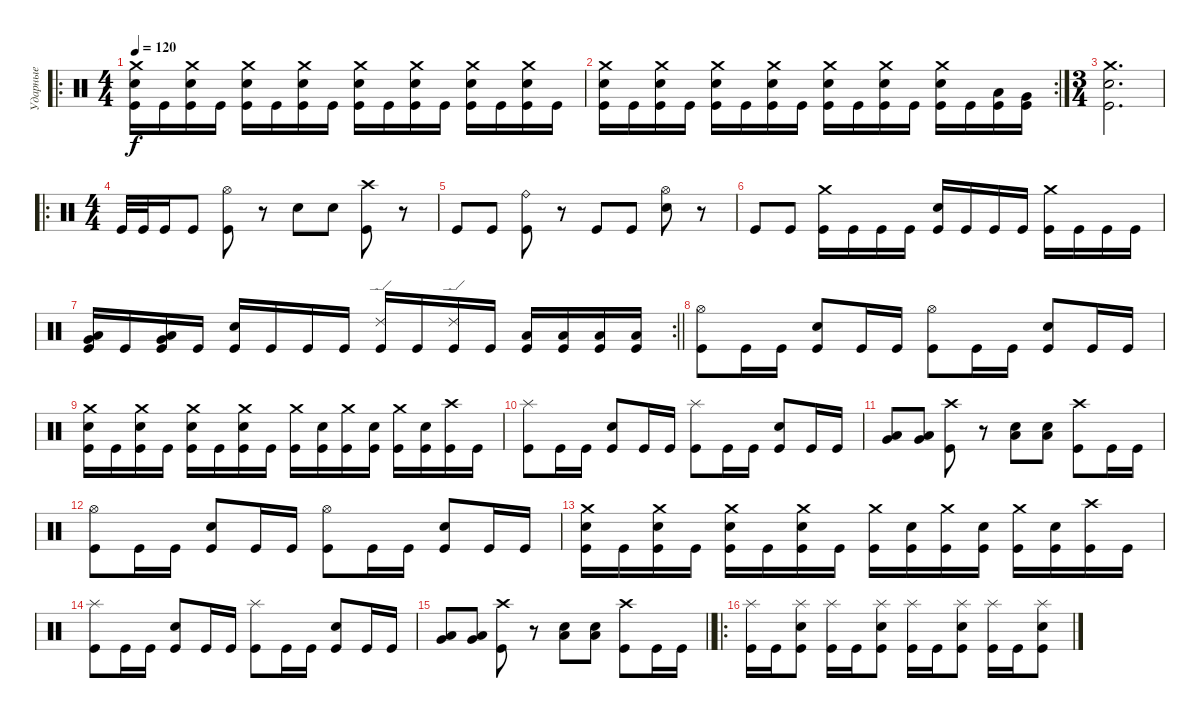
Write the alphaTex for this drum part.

\track ("Ударные" "Ударные") {instrument percussion}
\staff {score}
\articulation defaults
\ro
\ts (4 4)
\tempo 120
\clef neutral
\ks c
("Crash medium (hit)" "Kick (hit)" "Electric Snare (hit)").16{dy f} "Kick (hit)".16 ("Crash medium (hit)" "Kick (hit)" "Electric Snare (hit)").16 "Kick (hit)".16 ("Crash medium (hit)" "Kick (hit)" "Electric Snare (hit)").16 "Kick (hit)".16 ("Crash medium (hit)" "Kick (hit)" "Electric Snare (hit)").16 "Kick (hit)".16 ("Crash medium (hit)" "Kick (hit)" "Electric Snare (hit)").16 "Kick (hit)".16 ("Crash medium (hit)" "Kick (hit)" "Electric Snare (hit)").16 "Kick (hit)".16 ("Crash medium (hit)" "Kick (hit)" "Electric Snare (hit)").16 "Kick (hit)".16 ("Crash medium (hit)" "Kick (hit)" "Electric Snare (hit)").16 "Kick (hit)".16 |
\rc 2
("Crash medium (hit)" "Kick (hit)" "Electric Snare (hit)").16 "Kick (hit)".16 ("Crash medium (hit)" "Kick (hit)" "Electric Snare (hit)").16 "Kick (hit)".16 ("Crash medium (hit)" "Kick (hit)" "Electric Snare (hit)").16 "Kick (hit)".16 ("Crash medium (hit)" "Kick (hit)" "Electric Snare (hit)").16 "Kick (hit)".16 ("Crash medium (hit)" "Kick (hit)" "Electric Snare (hit)").16 "Kick (hit)".16 ("Crash medium (hit)" "Kick (hit)" "Electric Snare (hit)").16 "Kick (hit)".16 ("Crash medium (hit)" "Kick (hit)" "Electric Snare (hit)").16 "Kick (hit)".16 ("Low Tom (hit)" "Kick (hit)").16 ("Very Low Tom (hit)" "Kick (hit)").16 |
\ts (3 4)
("Crash medium (hit)" "Kick (hit)" "Electric Snare (hit)").2{d} |
\ro
\ts (4 4)
"Kick (hit)".32 "Kick (hit)".32 "Kick (hit)".16 "Kick (hit)".8 ("Hi-Hat (open)" "Kick (hit)").8 r.8 "Electric Snare (hit)".8 "Electric Snare (hit)".8 ("Crash high (hit)" "Kick (hit)").8 r.8 |
"Kick (hit)".8 "Kick (hit)".8 ("Ride (bell)" "Kick (hit)").8 r.8 "Kick (hit)".8 "Kick (hit)".8 ("Electric Snare (hit)" "Hi-Hat (open)").8 r.8 |
"Kick (hit)".8 "Kick (hit)".8 ("Crash medium (hit)" "Kick (hit)").16 "Kick (hit)".16 "Kick (hit)".16 "Kick (hit)".16 ("Electric Snare (hit)" "Kick (hit)").16 "Kick (hit)".16 "Kick (hit)".16 "Kick (hit)".16 ("Crash medium (hit)" "Kick (hit)").16 "Kick (hit)".16 "Kick (hit)".16 "Kick (hit)".16 |
\rc 2
\barLineRight lightlight
("Low Floor Tom (hit)" "Very Low Tom (hit)" "Kick (hit)").16 "Kick (hit)".16 ("Low Floor Tom (hit)" "Very Low Tom (hit)" "Kick (hit)").16 "Kick (hit)".16 ("Electric Snare (hit)" "Kick (hit)").16 "Kick (hit)".16 "Kick (hit)".16 "Kick (hit)".16 ("Ride (edge) 2" "Kick (hit)").16 "Kick (hit)".16 ("Ride (edge) 2" "Kick (hit)").16 "Kick (hit)".16 ("Low Floor Tom (hit)" "Kick (hit)").16 ("Low Floor Tom (hit)" "Kick (hit)").16 ("Low Tom (hit)" "Kick (hit)").16 ("Low Tom (hit)" "Kick (hit)").16 |
("Hi-Hat (open)" "Kick (hit)").8 "Kick (hit)".16 "Kick (hit)".16 ("Electric Snare (hit)" "Kick (hit)").8 "Kick (hit)".16 "Kick (hit)".16 ("Hi-Hat (open)" "Kick (hit)").8 "Kick (hit)".16 "Kick (hit)".16 ("Electric Snare (hit)" "Kick (hit)").8 "Kick (hit)".16 "Kick (hit)".16 |
("Crash medium (hit)" "Kick (hit)" "Electric Snare (hit)").16 "Kick (hit)".16 ("Crash medium (hit)" "Kick (hit)" "Electric Snare (hit)").16 "Kick (hit)".16 ("Crash medium (hit)" "Kick (hit)" "Electric Snare (hit)").16 "Kick (hit)".16 ("Crash medium (hit)" "Kick (hit)" "Electric Snare (hit)").16 "Kick (hit)".16 ("Crash medium (hit)" "Kick (hit)").16 ("Electric Snare (hit)" "Kick (hit)").16 ("Crash medium (hit)" "Kick (hit)").16 ("Electric Snare (hit)" "Kick (hit)").16 ("Crash medium (hit)" "Kick (hit)").16 ("Electric Snare (hit)" "Kick (hit)").16 ("Crash high (hit)" "Kick (hit)").16 "Kick (hit)".16 |
("Splash (hit)" "Kick (hit)").8 "Kick (hit)".16 "Kick (hit)".16 ("Electric Snare (hit)" "Kick (hit)").8 "Kick (hit)".16 "Kick (hit)".16 ("Splash (hit)" "Kick (hit)").8 "Kick (hit)".16 "Kick (hit)".16 ("Electric Snare (hit)" "Kick (hit)").8 "Kick (hit)".16 "Kick (hit)".16 |
("Low Tom (hit)" "Very Low Tom (hit)").8 ("Low Tom (hit)" "Very Low Tom (hit)").8 ("Crash high (hit)" "Kick (hit)").8 r.8 ("Electric Snare (hit)" "Low Floor Tom (hit)").8 ("Electric Snare (hit)" "Low Floor Tom (hit)").8 ("Crash high (hit)" "Kick (hit)").8 "Kick (hit)".16 "Kick (hit)".16 |
("Hi-Hat (open)" "Kick (hit)").8 "Kick (hit)".16 "Kick (hit)".16 ("Electric Snare (hit)" "Kick (hit)").8 "Kick (hit)".16 "Kick (hit)".16 ("Hi-Hat (open)" "Kick (hit)").8 "Kick (hit)".16 "Kick (hit)".16 ("Electric Snare (hit)" "Kick (hit)").8 "Kick (hit)".16 "Kick (hit)".16 |
("Crash medium (hit)" "Kick (hit)" "Electric Snare (hit)").16 "Kick (hit)".16 ("Crash medium (hit)" "Kick (hit)" "Electric Snare (hit)").16 "Kick (hit)".16 ("Crash medium (hit)" "Kick (hit)" "Electric Snare (hit)").16 "Kick (hit)".16 ("Crash medium (hit)" "Kick (hit)" "Electric Snare (hit)").16 "Kick (hit)".16 ("Crash medium (hit)" "Kick (hit)").16 ("Electric Snare (hit)" "Kick (hit)").16 ("Crash medium (hit)" "Kick (hit)").16 ("Electric Snare (hit)" "Kick (hit)").16 ("Crash medium (hit)" "Kick (hit)").16 ("Electric Snare (hit)" "Kick (hit)").16 ("Crash high (hit)" "Kick (hit)").16 "Kick (hit)".16 |
("Splash (hit)" "Kick (hit)").8 "Kick (hit)".16 "Kick (hit)".16 ("Electric Snare (hit)" "Kick (hit)").8 "Kick (hit)".16 "Kick (hit)".16 ("Splash (hit)" "Kick (hit)").8 "Kick (hit)".16 "Kick (hit)".16 ("Electric Snare (hit)" "Kick (hit)").8 "Kick (hit)".16 "Kick (hit)".16 |
\barLineRight lightlight
("Low Tom (hit)" "Very Low Tom (hit)").8 ("Low Tom (hit)" "Very Low Tom (hit)").8 ("Crash high (hit)" "Kick (hit)").8 r.8 ("Electric Snare (hit)" "Low Floor Tom (hit)").8 ("Electric Snare (hit)" "Low Floor Tom (hit)").8 ("Crash high (hit)" "Kick (hit)").8 "Kick (hit)".16 "Kick (hit)".16 |
\ro
("Splash (hit)" "Kick (hit)").16 "Kick (hit)".16 ("Splash (hit)" "Electric Snare (hit)" "Kick (hit)").8 ("Splash (hit)" "Kick (hit)").16 "Kick (hit)".16 ("Splash (hit)" "Electric Snare (hit)" "Kick (hit)").8 ("Splash (hit)" "Kick (hit)").16 "Kick (hit)".16 ("Splash (hit)" "Electric Snare (hit)" "Kick (hit)").8 ("Splash (hit)" "Kick (hit)").16 "Kick (hit)".16 ("Splash (hit)" "Electric Snare (hit)" "Kick (hit)").8
